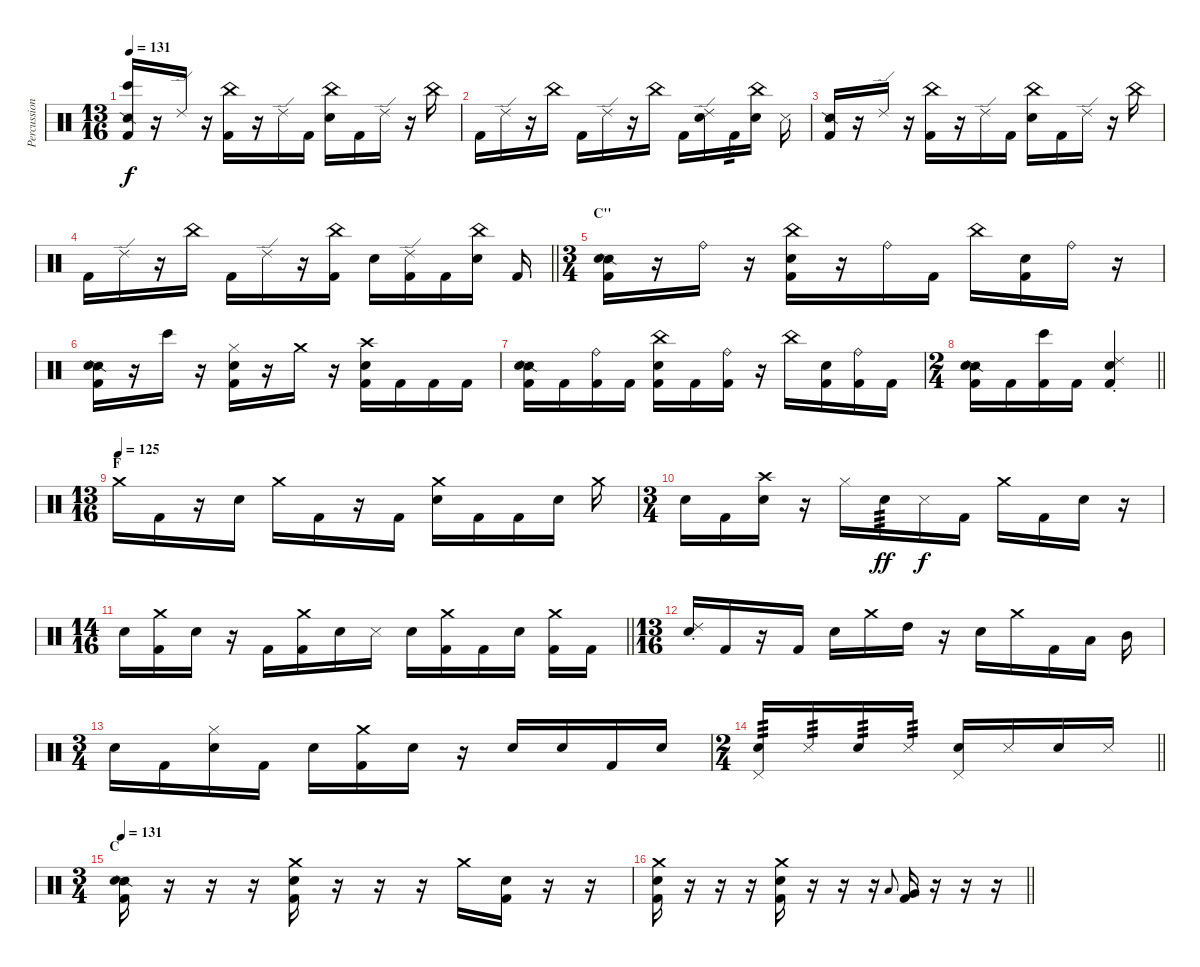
\track ("Percussion" "Percussion") {instrument percussion}
\staff {score}
\articulation defaults
\ts (13 16)
\tempo 131
\clef neutral
\ks c
("Snare (side stick) 2" "Bongo High (hit)" "Kick (hit) 2").16{dy f} r.16 "Ride (edge) 2".16 r.16 ("China (hit)" "Kick (hit) 2").16 r.16 "Ride (edge) 2".16 "Kick (hit) 2".16 ("China (hit)" "Snare (hit) 2").16 "Kick (hit) 2".16 "Ride (edge) 2".16 r.16 "China (hit)".16 |
"Kick (hit) 2".16 "Ride (edge) 2".16 r.16 "China (hit)".16 "Kick (hit) 2".16 "Ride (edge) 2".16 r.16 "China (hit)".16 "Kick (hit) 2".16 ("Ride (edge) 2" "Snare (hit) 2").16 "Kick (hit) 2".16{tp 3} ("China (hit)" "Snare (hit) 2").16 "Metronome (hit)".16 |
("Snare (side stick) 2" "Kick (hit) 2").16 r.16 "Ride (edge) 2".16 r.16 ("China (hit)" "Kick (hit) 2").16 r.16 "Ride (edge) 2".16 "Kick (hit) 2".16 ("China (hit)" "Snare (hit) 2").16 "Kick (hit) 2".16 "Ride (edge) 2".16 r.16 "China (hit)".16 |
\barLineRight lightlight "Kick (hit) 2".16 "Ride (edge) 2".16
r.16 "China (hit)".16 "Kick (hit) 2".16 "Ride (edge) 2".16 r.16 ("China (hit)" "Kick (hit) 2").16 "Snare (hit) 2".16 ("Ride (edge) 2" "Kick (hit) 2").16 "Kick (hit) 2".16 ("China (hit)" "Snare (hit) 2").16 "Kick (hit) 2".16 |
\ts (3 4)
\section ("" "C''")
("Snare (side stick) 2" "Snare (hit) 2" "Kick (hit) 2").16 r.16 "Ride (bell)".16 r.16 ("China (hit)" "Snare (hit) 2" "Kick (hit) 2").16 r.16 "Ride (bell)".16 "Kick (hit) 2".16 "China (hit)".16 ("Snare (hit) 2" "Kick (hit) 2").16 "Ride (bell)".16 r.16 |
("Snare (side stick) 2" "Snare (hit) 2" "Kick (hit) 2").16 r.16 "Bongo High (hit)".16 r.16 ("Hi-Hat (closed)" "Snare (hit) 2" "Kick (hit) 2").16 r.16 "Crash medium (hit)".16 r.16 ("Crash high (hit)" "Snare (hit) 2" "Kick (hit) 2").16 "Kick (hit) 2".16 "Kick (hit) 2".16 "Kick (hit) 2".16 |
("Snare (side stick) 2" "Snare (hit) 2" "Kick (hit) 2").16 "Kick (hit) 2".16 ("Ride (bell)" "Kick (hit) 2").16 "Kick (hit) 2".16 ("China (hit)" "Snare (hit) 2" "Kick (hit) 2").16 "Kick (hit) 2".16 ("Ride (bell)" "Kick (hit) 2").16 r.16 "China (hit)".16 ("Snare (hit) 2" "Kick (hit) 2").16 ("Ride (bell)" "Kick (hit) 2").16 "Kick (hit) 2".16 |
\ts (2 4)
\barLineRight lightlight
("Snare (side stick) 2" "Snare (hit) 2" "Kick (hit) 2").16 "Kick (hit) 2".16 ("Bongo High (hit)" "Kick (hit) 2").16 "Kick (hit) 2".16 ("Ride (choke) 2" "Snare (hit) 2" "Kick (hit) 2").4 |
\ts (13 16)
\section ("" "F")
\tempo (125)
"Crash medium (hit)".16 "Kick (hit) 2".16 r.16 "Snare (hit) 2".16 "Crash medium (hit)".16 "Kick (hit) 2".16 r.16 "Kick (hit) 2".16 ("Crash medium (hit)" "Snare (hit) 2").16 "Kick (hit) 2".16 "Kick (hit) 2".16 "Snare (hit) 2".16 "Crash medium (hit)".16 |
\ts (3 4)
"Snare (hit) 2".16 "Kick (hit) 2".16 ("Crash high (hit)" "Snare (hit) 2").16 r.16 "Hi-Hat (closed)".16 "Snare (hit) 2".16{tp 3 dy ff} "Metronome (hit)".16{dy f} "Kick (hit) 2".16 "Crash medium (hit)".16 "Kick (hit) 2".16 "Snare (hit) 2".16 r.16 |
\ts (14 16)
\barLineRight lightlight "Snare (hit) 2".16
("Crash medium (hit)" "Kick (hit) 2").16 "Snare (hit) 2".16 r.16 "Kick (hit) 2".16 ("Crash medium (hit)" "Kick (hit) 2").16 "Snare (hit) 2".16 "Metronome (hit)".16 "Snare (hit) 2".16 ("Crash medium (hit)" "Kick (hit) 2").16 "Kick (hit) 2".16 "Snare (hit) 2".16 ("Crash medium (hit)" "Kick (hit) 2").16 "Kick (hit) 2".16 |
\ts (13 16)
("Ride (choke) 2" "Snare (hit) 2").16 "Kick (hit) 2".16 r.16 "Kick (hit) 2".16 "Snare (hit) 2".16 "Crash medium (hit)".16 "High Tom (hit)".16 r.16 "Snare (hit) 2".16 "Crash medium (hit)".16 "Kick (hit) 2".16 "Low Tom (hit)".16 "Mid Tom (hit)".16 |
\ts (3 4)
"Snare (hit) 2".16 "Kick (hit) 2".16 ("Hi-Hat (closed)" "Snare (hit) 2").16 "Kick (hit) 2".16 "Snare (hit) 2".16 ("Crash medium (hit)" "Kick (hit) 2").16 "Snare (hit) 2".16 r.16 "Snare (hit)".16 "Snare (hit) 2".16 "Kick (hit) 2".16 "Snare (hit) 2".16 |
\ts (2 4)
\barLineRight lightlight
("Pedal Hi-Hat (hit)" "Snare (hit) 2").16{tp 3} "Metronome (hit)".16{tp 3} "Snare (hit) 2".16{tp 3} "Metronome (hit)".16{tp 3} ("Pedal Hi-Hat (hit)" "Snare (hit) 2").16 "Metronome (hit)".16 "Snare (hit) 2".16 "Metronome (hit)".16 |
\ts (3 4)
\section ("" "C")
\tempo 131
("Snare (side stick) 2" "Snare (hit) 2" "Kick (hit) 2").16 r.16 r.16 r.16 ("Crash medium (hit)" "Snare (hit) 2" "Kick (hit) 2").16 r.16 r.16 r.16 "Crash medium (hit)".16 ("Snare (hit) 2" "Kick (hit) 2").16 r.16 r.16 |
\barLineRight lightlight
("Crash medium (hit)" "Snare (hit) 2" "Kick (hit) 2").16 r.16 r.16 r.16 ("Crash medium (hit)" "Snare (hit) 2" "Kick (hit) 2").16 r.16 r.16 r.16 "Low Tom (hit)".8{gr onbeat} ("Very Low Tom (hit)" "Kick (hit) 2").16 r.16 r.16 r.16
